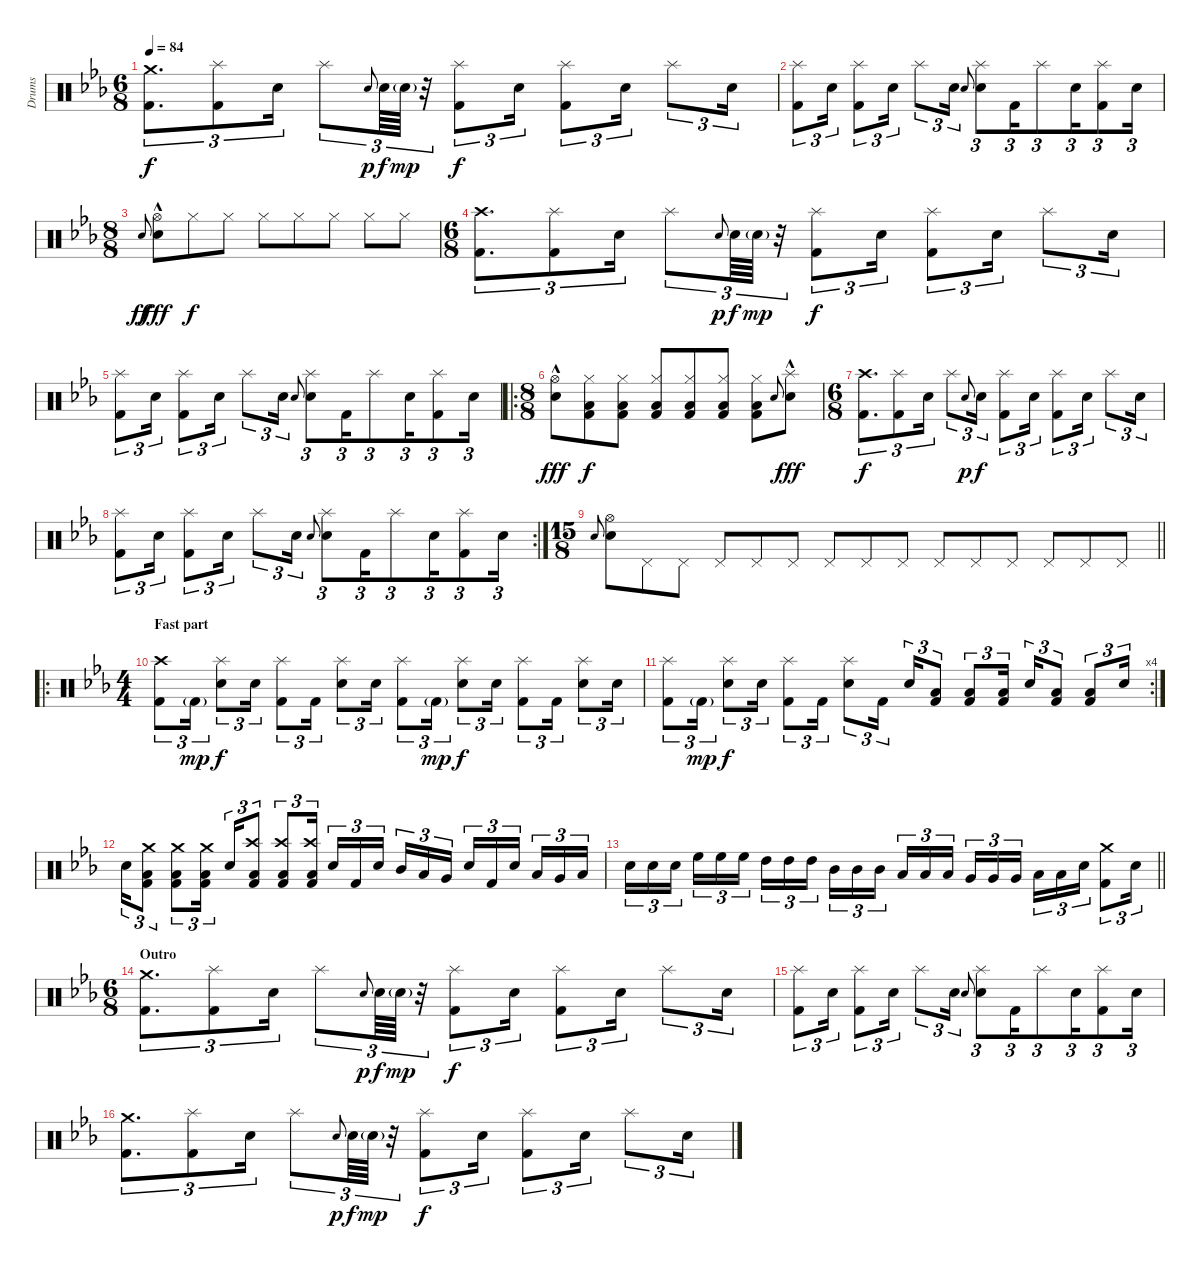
\track ("Drums" "Drums") {instrument percussion}
\staff {score}
\articulation defaults
\ts (6 8)
\tempo 84
\clef neutral
\ks cminor
("Crash medium (hit)" "Kick (hit) 2").8{d tu (3 2) dy f} ("Splash (hit)" "Kick (hit) 2").8{tu (3 2)} "Snare (hit) 2".16{tu (3 2)} "Splash (hit)".8{tu (3 2)} "Electric Snare (hit)".8{gr onbeat dy p} "Electric Snare (hit)".64{tu (3 2) dy f} "Electric Snare (hit)"{g}.64{tu (3 2) dy mp} r.32{tu (3 2)} ("Splash (hit)" "Kick (hit) 2").8{tu (3 2) dy f} "Snare (hit) 2".16{tu (3 2)} ("Splash (hit)" "Kick (hit) 2").8{tu (3 2)} "Snare (hit) 2".16{tu (3 2)} "Splash (hit)".8{tu (3 2)} "Snare (hit) 2".16{tu (3 2)} |
("Splash (hit)" "Kick (hit) 2").8{tu (3 2)} "Snare (hit) 2".16{tu (3 2)} ("Splash (hit)" "Kick (hit) 2").8{tu (3 2)} "Snare (hit) 2".16{tu (3 2)} "Splash (hit)".8{tu (3 2)} "Snare (hit) 2".16{tu (3 2)} "Snare (hit) 2"{h}.8{gr onbeat} ("Splash (hit)" "Snare (hit) 2").8{tu (3 2)} "Kick (hit) 2".16{tu (3 2)} "Splash (hit)".8{tu (3 2)} "Snare (hit) 2".16{tu (3 2)} ("Splash (hit)" "Kick (hit) 2").8{tu (3 2)} "Snare (hit) 2".16{tu (3 2)} |
\ts (8 8)
"Snare (hit) 2".8{gr onbeat dy ff} ("Hi-Hat (open)" "Snare (hit) 2"{hac}).8{dy fff} "Hi-Hat (closed)".8{dy f} "Hi-Hat (closed)".8 "Hi-Hat (closed)".8 "Hi-Hat (closed)".8 "Hi-Hat (closed)".8 "Hi-Hat (closed)".8 "Hi-Hat (closed)".8 |
\ts (6 8)
("Crash high (hit)" "Kick (hit) 2").8{d tu (3 2)} ("Splash (hit)" "Kick (hit) 2").8{tu (3 2)} "Snare (hit) 2".16{tu (3 2)} "Splash (hit)".8{tu (3 2)} "Electric Snare (hit)".8{gr onbeat dy p} "Electric Snare (hit)".64{tu (3 2) dy f} "Electric Snare (hit)"{g}.64{tu (3 2) dy mp} r.32{tu (3 2)} ("Splash (hit)" "Kick (hit) 2").8{tu (3 2) dy f} "Snare (hit) 2".16{tu (3 2)} ("Splash (hit)" "Kick (hit) 2").8{tu (3 2)} "Snare (hit) 2".16{tu (3 2)} "Splash (hit)".8{tu (3 2)} "Snare (hit) 2".16{tu (3 2)} |
("Splash (hit)" "Kick (hit) 2").8{tu (3 2)} "Snare (hit) 2".16{tu (3 2)} ("Splash (hit)" "Kick (hit) 2").8{tu (3 2)} "Snare (hit) 2".16{tu (3 2)} "Splash (hit)".8{tu (3 2)} "Snare (hit) 2".16{tu (3 2)} "Snare (hit) 2"{h}.8{gr onbeat} ("Splash (hit)" "Snare (hit) 2").8{tu (3 2)} "Kick (hit) 2".16{tu (3 2)} "Splash (hit)".8{tu (3 2)} "Snare (hit) 2".16{tu (3 2)} ("Splash (hit)" "Kick (hit) 2").8{tu (3 2)} "Snare (hit) 2".16{tu (3 2)} |
\ro
\ts (8 8)
("Hi-Hat (open)" "Snare (hit) 2"{hac}).8{dy fff} ("Hi-Hat (closed)" "Low Floor Tom (hit)" "Kick (hit) 2").8{dy f} ("Hi-Hat (closed)" "Low Floor Tom (hit)" "Kick (hit) 2").8 ("Hi-Hat (closed)" "Low Floor Tom (hit)" "Kick (hit) 2").8 ("Hi-Hat (closed)" "Low Floor Tom (hit)" "Kick (hit) 2").8 ("Hi-Hat (closed)" "Low Floor Tom (hit)" "Kick (hit) 2").8 ("Hi-Hat (closed)" "Low Floor Tom (hit)" "Kick (hit) 2").8 "Snare (hit) 2".8{gr onbeat} ("Splash (hit)" "Snare (hit) 2"{hac}).8{dy fff} |
\ts (6 8)
("Crash high (hit)" "Kick (hit) 2").8{d tu (3 2) dy f} ("Splash (hit)" "Kick (hit) 2").8{tu (3 2)} "Snare (hit) 2".16{tu (3 2)} "Splash (hit)".8{tu (3 2)} "Electric Snare (hit)".8{gr onbeat dy p} "Snare (hit) 2".16{tu (3 2) dy f} ("Splash (hit)" "Kick (hit) 2").8{tu (3 2)} "Snare (hit) 2".16{tu (3 2)} ("Splash (hit)" "Kick (hit) 2").8{tu (3 2)} "Snare (hit) 2".16{tu (3 2)} "Splash (hit)".8{tu (3 2)} "Snare (hit) 2".16{tu (3 2)} |
\rc 2
("Splash (hit)" "Kick (hit) 2").8{tu (3 2)} "Snare (hit) 2".16{tu (3 2)} ("Splash (hit)" "Kick (hit) 2").8{tu (3 2)} "Snare (hit) 2".16{tu (3 2)} "Splash (hit)".8{tu (3 2)} "Snare (hit) 2".16{tu (3 2)} "Snare (hit) 2"{h}.8{gr onbeat} ("Splash (hit)" "Snare (hit) 2").8{tu (3 2)} "Kick (hit) 2".16{tu (3 2)} "Splash (hit)".8{tu (3 2)} "Snare (hit) 2".16{tu (3 2)} ("Splash (hit)" "Kick (hit) 2").8{tu (3 2)} "Snare (hit) 2".16{tu (3 2)} |
\ts (15 8)
\barLineRight lightlight "Snare (hit) 2".8{gr onbeat}
("Hi-Hat (open)" "Snare (hit) 2").8 "Pedal Hi-Hat (hit)".8 "Pedal Hi-Hat (hit)".8 "Pedal Hi-Hat (hit)".8 "Pedal Hi-Hat (hit)".8 "Pedal Hi-Hat (hit)".8 "Pedal Hi-Hat (hit)".8 "Pedal Hi-Hat (hit)".8 "Pedal Hi-Hat (hit)".8 "Pedal Hi-Hat (hit)".8 "Pedal Hi-Hat (hit)".8 "Pedal Hi-Hat (hit)".8 "Pedal Hi-Hat (hit)".8 "Pedal Hi-Hat (hit)".8 "Pedal Hi-Hat (hit)".8 |
\ro
\ts (4 4)
\section ("" "Fast part")
("Crash high (hit)" "Kick (hit) 2").8{tu (3 2)} "Kick (hit) 2"{g}.16{tu (3 2) dy mp} ("Splash (hit)" "Snare (hit) 2").8{tu (3 2) dy f} "Snare (hit) 2".16{tu (3 2)} ("Splash (hit)" "Kick (hit) 2").8{tu (3 2)} "Kick (hit) 2".16{tu (3 2)} ("Splash (hit)" "Snare (hit) 2").8{tu (3 2)} "Snare (hit) 2".16{tu (3 2)} ("Splash (hit)" "Kick (hit) 2").8{tu (3 2)} "Kick (hit) 2"{g}.16{tu (3 2) dy mp} ("Splash (hit)" "Snare (hit) 2").8{tu (3 2) dy f} "Snare (hit) 2".16{tu (3 2)} ("Splash (hit)" "Kick (hit) 2").8{tu (3 2)} "Kick (hit) 2".16{tu (3 2)} ("Splash (hit)" "Snare (hit) 2").8{tu (3 2)} "Snare (hit) 2".16{tu (3 2)} |
\rc 4
("Splash (hit)" "Kick (hit) 2").8{tu (3 2)} "Kick (hit) 2"{g}.16{tu (3 2) dy mp} ("Splash (hit)" "Snare (hit) 2").8{tu (3 2) dy f} "Snare (hit) 2".16{tu (3 2)} ("Splash (hit)" "Kick (hit) 2").8{tu (3 2)} "Kick (hit) 2".16{tu (3 2)} ("Splash (hit)" "Snare (hit) 2").8{tu (3 2)} "Kick (hit) 2".16{tu (3 2)} "Snare (hit) 2".16{tu (3 2)} ("Low Floor Tom (hit)" "Kick (hit) 2").8{tu (3 2)} ("Low Floor Tom (hit)" "Kick (hit) 2").8{tu (3 2)} ("Low Floor Tom (hit)" "Kick (hit) 2").16{tu (3 2)} "Snare (hit) 2".16{tu (3 2)} ("Low Floor Tom (hit)" "Kick (hit) 2").8{tu (3 2)} ("Low Floor Tom (hit)" "Kick (hit) 2").8{tu (3 2)} "Snare (hit) 2".16{tu (3 2)} |
"Snare (hit) 2".16{tu (3 2)} ("Crash medium (hit)" "Low Floor Tom (hit)" "Kick (hit) 2").8{tu (3 2)} ("Crash medium (hit)" "Low Floor Tom (hit)" "Kick (hit) 2").8{tu (3 2)} ("Crash medium (hit)" "Low Floor Tom (hit)" "Kick (hit) 2").16{tu (3 2)} "Snare (hit) 2".16{tu (3 2)} ("Crash high (hit)" "Low Floor Tom (hit)" "Kick (hit) 2").8{tu (3 2)} ("Crash high (hit)" "Low Floor Tom (hit)" "Kick (hit) 2").8{tu (3 2)} ("Crash high (hit)" "Low Floor Tom (hit)" "Kick (hit) 2").16{tu (3 2)} "Snare (hit) 2".16{tu (3 2)} "Kick (hit) 2".16{tu (3 2)} "Snare (hit) 2".16{tu (3 2) beam splitsecondary} "Mid Tom (hit)".16{tu (3 2)} "Low Tom (hit)".16{tu (3 2)} "Very Low Tom (hit)".16{tu (3 2)} "Snare (hit) 2".16{tu (3 2)} "Kick (hit) 2".16{tu (3 2)} "Snare (hit) 2".16{tu (3 2) beam splitsecondary} "Low Tom (hit)".16{tu (3 2)} "Very Low Tom (hit)".16{tu (3 2)} "Low Floor Tom (hit)".16{tu (3 2)} |
\barLineRight lightlight "Snare (hit) 2".16{tu (3 2)} "Snare (hit) 2".16{tu (3 2)} "Snare (hit) 2".16{tu (3 2) beam splitsecondary} "High Floor Tom (hit)".16{tu (3 2)} "High Floor Tom (hit)".16{tu (3 2)} "High Floor Tom (hit)".16{tu (3 2)} "High Tom (hit)".16{tu (3 2)} "High Tom (hit)".16{tu (3 2)} "High Tom (hit)".16{tu (3 2) beam splitsecondary} "Mid Tom (hit)".16{tu (3 2)} "Mid Tom (hit)".16{tu (3 2)} "Mid Tom (hit)".16{tu (3 2)} "Low Tom (hit)".16{tu (3 2)} "Low Tom (hit)".16{tu (3 2)} "Low Tom (hit)".16{tu (3 2) beam splitsecondary} "Very Low Tom (hit)".16{tu (3 2)} "Very Low Tom (hit)".16{tu (3 2)} "Very Low Tom (hit)".16{tu (3 2)} "Low Floor Tom (hit)".16{tu (3 2)} "Low Floor Tom (hit)".16{tu (3 2)} "Snare (hit) 2".16{tu (3 2)}
("Crash medium (hit)" "Kick (hit) 2").8{tu (3 2)} "Snare (hit) 2".16{tu (3 2)} |
\ts (6 8)
\section ("" "Outro")
("Crash medium (hit)" "Kick (hit) 2").8{d tu (3 2)} ("Splash (hit)" "Kick (hit) 2").8{tu (3 2)} "Snare (hit) 2".16{tu (3 2)} "Splash (hit)".8{tu (3 2)} "Electric Snare (hit)".8{gr onbeat dy p} "Electric Snare (hit)".64{tu (3 2) dy f} "Electric Snare (hit)"{g}.64{tu (3 2) dy mp} r.32{tu (3 2)} ("Splash (hit)" "Kick (hit) 2").8{tu (3 2) dy f} "Snare (hit) 2".16{tu (3 2)} ("Splash (hit)" "Kick (hit) 2").8{tu (3 2)} "Snare (hit) 2".16{tu (3 2)} "Splash (hit)".8{tu (3 2)} "Snare (hit) 2".16{tu (3 2)} |
("Splash (hit)" "Kick (hit) 2").8{tu (3 2)} "Snare (hit) 2".16{tu (3 2)} ("Splash (hit)" "Kick (hit) 2").8{tu (3 2)} "Snare (hit) 2".16{tu (3 2)} "Splash (hit)".8{tu (3 2)} "Snare (hit) 2".16{tu (3 2)} "Snare (hit) 2"{h}.8{gr onbeat} ("Splash (hit)" "Snare (hit) 2").8{tu (3 2)} "Kick (hit) 2".16{tu (3 2)} "Splash (hit)".8{tu (3 2)} "Snare (hit) 2".16{tu (3 2)} ("Splash (hit)" "Kick (hit) 2").8{tu (3 2)} "Snare (hit) 2".16{tu (3 2)} |
("Crash medium (hit)" "Kick (hit) 2").8{d tu (3 2)} ("Splash (hit)" "Kick (hit) 2").8{tu (3 2)} "Snare (hit) 2".16{tu (3 2)} "Splash (hit)".8{tu (3 2)} "Electric Snare (hit)".8{gr onbeat dy p} "Electric Snare (hit)".64{tu (3 2) dy f} "Electric Snare (hit)"{g}.64{tu (3 2) dy mp} r.32{tu (3 2)} ("Splash (hit)" "Kick (hit) 2").8{tu (3 2) dy f} "Snare (hit) 2".16{tu (3 2)} ("Splash (hit)" "Kick (hit) 2").8{tu (3 2)} "Snare (hit) 2".16{tu (3 2)} "Splash (hit)".8{tu (3 2)} "Snare (hit) 2".16{tu (3 2)}
